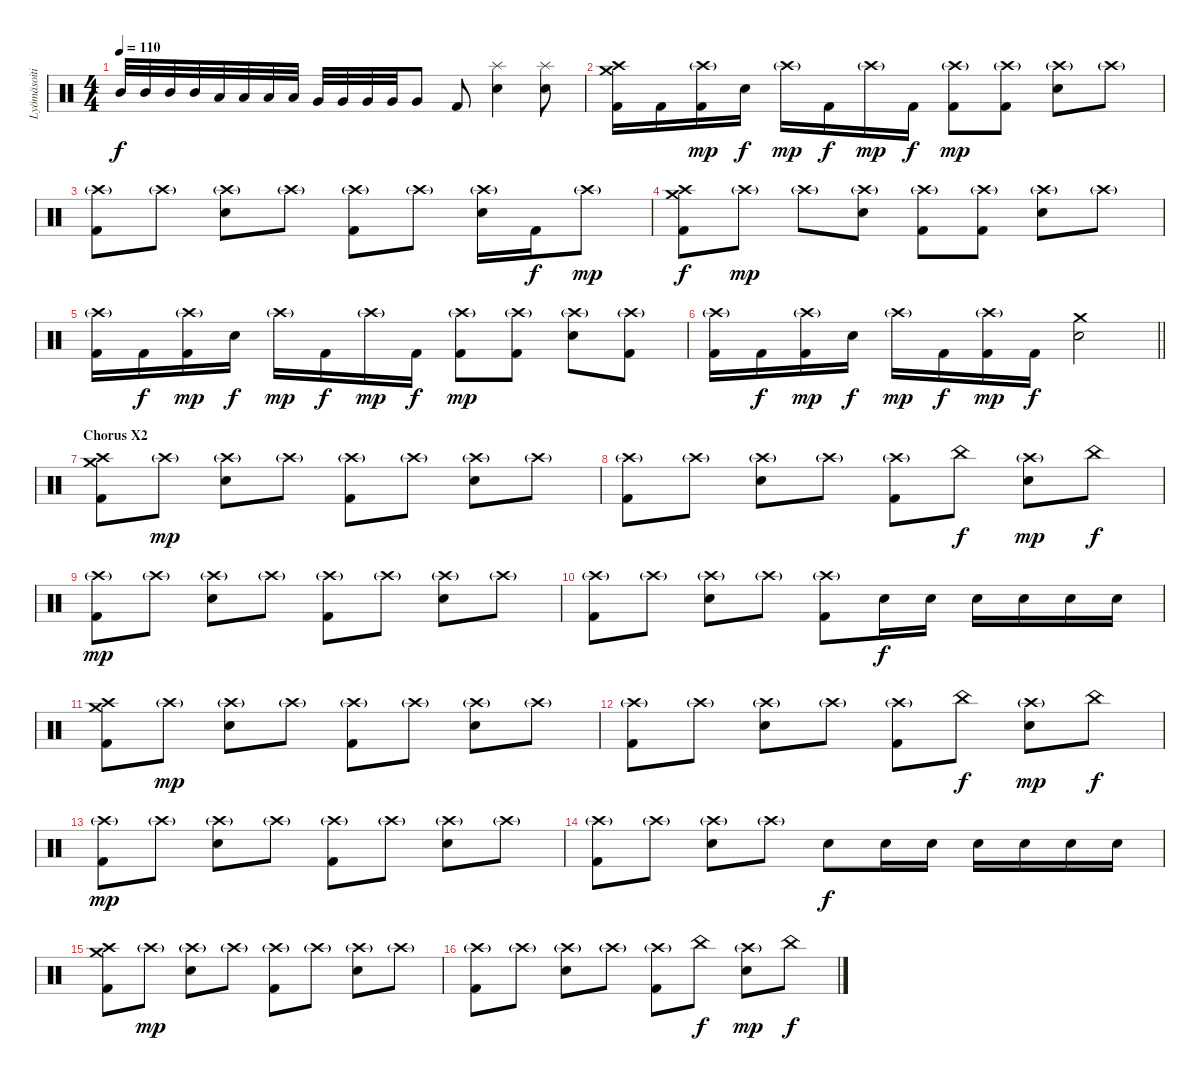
\track ("Lyömäsoitin" "Lyömäsoiti") {instrument percussion}
\staff {score}
\articulation defaults
\ts (4 4)
\tempo 110
\clef neutral
\ks c "Mid Tom (hit)".32{dy f} "Mid Tom (hit)".32 "Mid Tom (hit)".32 "Mid Tom (hit)".32 "Low Tom (hit)".32 "Low Tom (hit)".32 "Low Tom (hit)".32 "Low Tom (hit)".32 "Very Low Tom (hit)".32 "Very Low Tom (hit)".32 "Very Low Tom (hit)".32 "Very Low Tom (hit)".32 "Very Low Tom (hit)".8 "Kick (hit) 2".8
("Splash (hit)" "Electric Snare (hit)").4 ("Splash (hit)" "Electric Snare (hit)").8 |
("Crash medium (hit)" "Crash high (hit)" "Kick (hit) 2").16 "Kick (hit) 2".16 ("Crash high (hit)"{g} "Kick (hit) 2").16{dy mp} "Electric Snare (hit)".16{dy f} "Crash high (hit)"{g}.16{dy mp} "Kick (hit) 2".16{dy f} "Crash high (hit)"{g}.16{dy mp} "Kick (hit) 2".16{dy f} ("Crash high (hit)"{g} "Kick (hit) 2").8{dy mp} ("Crash high (hit)"{g} "Kick (hit) 2").8 ("Crash high (hit)"{g} "Electric Snare (hit)").8 "Crash high (hit)"{g}.8 |
("Crash high (hit)"{g} "Kick (hit) 2").8 "Crash high (hit)"{g}.8 ("Crash high (hit)"{g} "Electric Snare (hit)").8 "Crash high (hit)"{g}.8 ("Crash high (hit)"{g} "Kick (hit) 2").8 "Crash high (hit)"{g}.8 ("Crash high (hit)"{g} "Electric Snare (hit)").16 "Kick (hit) 2".16{dy f} "Crash high (hit)"{g}.8{dy mp} |
("Crash medium (hit)" "Crash high (hit)" "Kick (hit) 2").8{dy f} "Crash high (hit)"{g}.8{dy mp} "Crash high (hit)"{g}.8 ("Crash high (hit)"{g} "Electric Snare (hit)").8 ("Crash high (hit)"{g} "Kick (hit) 2").8 ("Crash high (hit)"{g} "Kick (hit) 2").8 ("Crash high (hit)"{g} "Electric Snare (hit)").8 "Crash high (hit)"{g}.8 |
("Crash high (hit)"{g} "Kick (hit) 2").16 "Kick (hit) 2".16{dy f} ("Crash high (hit)"{g} "Kick (hit) 2").16{dy mp} "Electric Snare (hit)".16{dy f} "Crash high (hit)"{g}.16{dy mp} "Kick (hit) 2".16{dy f} "Crash high (hit)"{g}.16{dy mp} "Kick (hit) 2".16{dy f} ("Crash high (hit)"{g} "Kick (hit) 2").8{dy mp} ("Crash high (hit)"{g} "Kick (hit) 2").8 ("Crash high (hit)"{g} "Electric Snare (hit)").8 ("Crash high (hit)"{g} "Kick (hit) 2").8 |
\barLineRight lightlight
("Crash high (hit)"{g} "Kick (hit) 2").16 "Kick (hit) 2".16{dy f} ("Crash high (hit)"{g} "Kick (hit) 2").16{dy mp} "Electric Snare (hit)".16{dy f} "Crash high (hit)"{g}.16{dy mp} "Kick (hit) 2".16{dy f} ("Crash high (hit)"{g} "Kick (hit) 2").16{dy mp} "Kick (hit) 2".16{dy f} ("Crash medium (hit)" "Electric Snare (hit)").2 |
\section ("" "Chorus X2")
("Crash medium (hit)" "Crash high (hit)" "Kick (hit) 2").8 "Crash high (hit)"{g}.8{dy mp} ("Crash high (hit)"{g} "Electric Snare (hit)").8 "Crash high (hit)"{g}.8 ("Crash high (hit)"{g} "Kick (hit) 2").8 "Crash high (hit)"{g}.8 ("Crash high (hit)"{g} "Electric Snare (hit)").8 "Crash high (hit)"{g}.8 |
("Crash high (hit)"{g} "Kick (hit) 2").8 "Crash high (hit)"{g}.8 ("Crash high (hit)"{g} "Electric Snare (hit)").8 "Crash high (hit)"{g}.8 ("Crash high (hit)"{g} "Kick (hit) 2").8 "China (hit)".8{dy f} ("Crash high (hit)"{g} "Electric Snare (hit)").8{dy mp} "China (hit)".8{dy f} |
("Crash high (hit)"{g} "Kick (hit) 2").8{dy mp} "Crash high (hit)"{g}.8 ("Crash high (hit)"{g} "Electric Snare (hit)").8 "Crash high (hit)"{g}.8 ("Crash high (hit)"{g} "Kick (hit) 2").8 "Crash high (hit)"{g}.8 ("Crash high (hit)"{g} "Electric Snare (hit)").8 "Crash high (hit)"{g}.8 |
("Crash high (hit)"{g} "Kick (hit) 2").8 "Crash high (hit)"{g}.8 ("Crash high (hit)"{g} "Electric Snare (hit)").8 "Crash high (hit)"{g}.8 ("Crash high (hit)"{g} "Kick (hit) 2").8 "Electric Snare (hit)".16{dy f} "Electric Snare (hit)".16 "Electric Snare (hit)".16 "Electric Snare (hit)".16 "Electric Snare (hit)".16 "Electric Snare (hit)".16 |
("Crash medium (hit)" "Crash high (hit)" "Kick (hit) 2").8 "Crash high (hit)"{g}.8{dy mp} ("Crash high (hit)"{g} "Electric Snare (hit)").8 "Crash high (hit)"{g}.8 ("Crash high (hit)"{g} "Kick (hit) 2").8 "Crash high (hit)"{g}.8 ("Crash high (hit)"{g} "Electric Snare (hit)").8 "Crash high (hit)"{g}.8 |
("Crash high (hit)"{g} "Kick (hit) 2").8 "Crash high (hit)"{g}.8 ("Crash high (hit)"{g} "Electric Snare (hit)").8 "Crash high (hit)"{g}.8 ("Crash high (hit)"{g} "Kick (hit) 2").8 "China (hit)".8{dy f} ("Crash high (hit)"{g} "Electric Snare (hit)").8{dy mp} "China (hit)".8{dy f} |
("Crash high (hit)"{g} "Kick (hit) 2").8{dy mp} "Crash high (hit)"{g}.8 ("Crash high (hit)"{g} "Electric Snare (hit)").8 "Crash high (hit)"{g}.8 ("Crash high (hit)"{g} "Kick (hit) 2").8 "Crash high (hit)"{g}.8 ("Crash high (hit)"{g} "Electric Snare (hit)").8 "Crash high (hit)"{g}.8 |
("Crash high (hit)"{g} "Kick (hit) 2").8 "Crash high (hit)"{g}.8 ("Crash high (hit)"{g} "Electric Snare (hit)").8 "Crash high (hit)"{g}.8 "Electric Snare (hit)".8{dy f} "Electric Snare (hit)".16 "Electric Snare (hit)".16 "Electric Snare (hit)".16 "Electric Snare (hit)".16 "Electric Snare (hit)".16 "Electric Snare (hit)".16 |
("Crash medium (hit)" "Crash high (hit)" "Kick (hit) 2").8 "Crash high (hit)"{g}.8{dy mp} ("Crash high (hit)"{g} "Electric Snare (hit)").8 "Crash high (hit)"{g}.8 ("Crash high (hit)"{g} "Kick (hit) 2").8 "Crash high (hit)"{g}.8 ("Crash high (hit)"{g} "Electric Snare (hit)").8 "Crash high (hit)"{g}.8 |
("Crash high (hit)"{g} "Kick (hit) 2").8 "Crash high (hit)"{g}.8 ("Crash high (hit)"{g} "Electric Snare (hit)").8 "Crash high (hit)"{g}.8 ("Crash high (hit)"{g} "Kick (hit) 2").8 "China (hit)".8{dy f} ("Crash high (hit)"{g} "Electric Snare (hit)").8{dy mp} "China (hit)".8{dy f}
